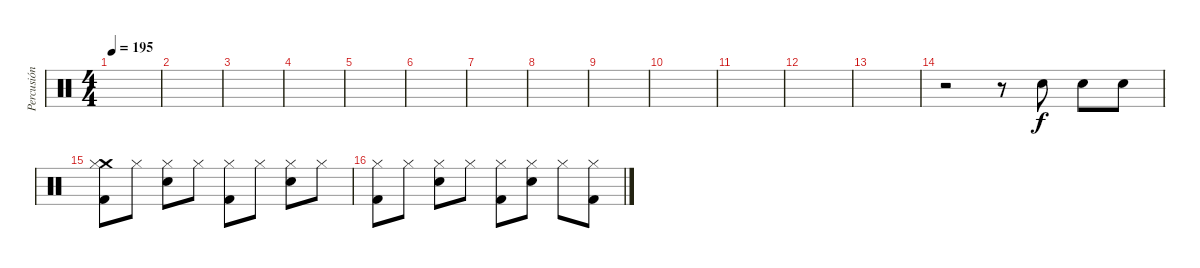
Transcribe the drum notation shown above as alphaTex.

\track ("Percusión" "Percusión") {instrument percussion}
\staff {score}
\articulation defaults
\ts (4 4)
\tempo 195
\clef neutral
\ks c
|
|
|
|
|
|
|
|
|
|
|
|
|
r.2 r.8 "Snare (hit) 2".8 "Snare (hit) 2".8 "Snare (hit) 2".8 |
("Crash medium (hit)" "Hi-Hat (closed)" "Kick (hit) 2").8 "Hi-Hat (closed)".8 ("Hi-Hat (closed)" "Snare (hit) 2").8 "Hi-Hat (closed)".8 ("Hi-Hat (closed)" "Kick (hit) 2").8 "Hi-Hat (closed)".8 ("Hi-Hat (closed)" "Snare (hit) 2").8 "Hi-Hat (closed)".8 |
("Hi-Hat (closed)" "Kick (hit) 2").8 "Hi-Hat (closed)".8 ("Hi-Hat (closed)" "Snare (hit) 2").8 "Hi-Hat (closed)".8 ("Hi-Hat (closed)" "Kick (hit) 2").8 ("Hi-Hat (closed)" "Snare (hit) 2").8 "Hi-Hat (closed)".8 ("Hi-Hat (closed)" "Kick (hit) 2").8
